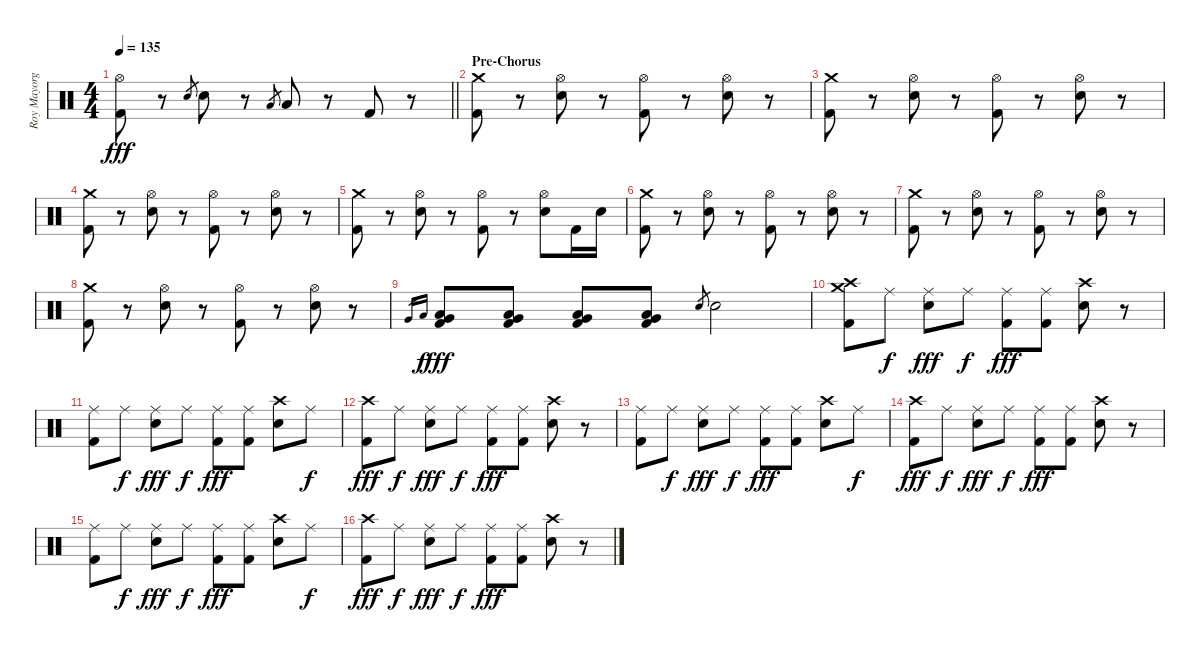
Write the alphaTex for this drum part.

\track ("Roy Mayorga" "Roy Mayorg") {instrument percussion}
\staff {score}
\articulation defaults
\ts (4 4)
\tempo 135
\clef neutral
\barLineRight lightlight
\ks c
("Hi-Hat (open)" "Kick (hit) 2").8{dy fff} r.8 "Electric Snare (hit)".8{gr} "Electric Snare (hit)".8 r.8 "Low Tom (hit)".8{gr} "Low Tom (hit)".8 r.8 "Kick (hit) 2".8 r.8 |
\section ("" "Pre-Chorus")
("Crash medium (hit)" "Kick (hit) 2").8 r.8 ("Hi-Hat (open)" "Electric Snare (hit)").8 r.8 ("Hi-Hat (open)" "Kick (hit) 2").8 r.8 ("Hi-Hat (open)" "Electric Snare (hit)").8 r.8 |
("Crash medium (hit)" "Kick (hit) 2").8 r.8 ("Hi-Hat (open)" "Electric Snare (hit)").8 r.8 ("Hi-Hat (open)" "Kick (hit) 2").8 r.8 ("Hi-Hat (open)" "Electric Snare (hit)").8 r.8 |
("Crash medium (hit)" "Kick (hit) 2").8 r.8 ("Hi-Hat (open)" "Electric Snare (hit)").8 r.8 ("Hi-Hat (open)" "Kick (hit) 2").8 r.8 ("Hi-Hat (open)" "Electric Snare (hit)").8 r.8 |
("Crash medium (hit)" "Kick (hit) 2").8 r.8 ("Hi-Hat (open)" "Electric Snare (hit)").8 r.8 ("Hi-Hat (open)" "Kick (hit) 2").8 r.8 ("Hi-Hat (open)" "Electric Snare (hit)").8 "Kick (hit) 2".16 "Electric Snare (hit)".16 |
("Crash medium (hit)" "Kick (hit) 2").8 r.8 ("Hi-Hat (open)" "Electric Snare (hit)").8 r.8 ("Hi-Hat (open)" "Kick (hit) 2").8 r.8 ("Hi-Hat (open)" "Electric Snare (hit)").8 r.8 |
("Crash medium (hit)" "Kick (hit) 2").8 r.8 ("Hi-Hat (open)" "Electric Snare (hit)").8 r.8 ("Hi-Hat (open)" "Kick (hit) 2").8 r.8 ("Hi-Hat (open)" "Electric Snare (hit)").8 r.8 |
("Crash medium (hit)" "Kick (hit) 2").8 r.8 ("Hi-Hat (open)" "Electric Snare (hit)").8 r.8 ("Hi-Hat (open)" "Kick (hit) 2").8 r.8 ("Hi-Hat (open)" "Electric Snare (hit)").8 r.8 |
"Very Low Tom (hit)".16{gr} "Low Floor Tom (hit)".16{gr dy f} ("Very Low Tom (hit)" "Low Floor Tom (hit)" "Kick (hit) 2").8{dy fff} ("Very Low Tom (hit)" "Low Floor Tom (hit)" "Kick (hit) 2").8 ("Very Low Tom (hit)" "Low Floor Tom (hit)" "Kick (hit) 2").8 ("Very Low Tom (hit)" "Low Floor Tom (hit)" "Kick (hit) 2").8 "Electric Snare (hit)".8{gr} "Electric Snare (hit)".2 |
("Crash high (hit)" "Crash medium (hit)" "Kick (hit) 2").8 "Ride (middle)".8{dy f} ("Ride (middle)" "Electric Snare (hit)").8{dy fff} "Ride (middle)".8{dy f} ("Ride (middle)" "Kick (hit) 2").8{dy fff} ("Ride (middle)" "Kick (hit) 2").8 ("Crash high (hit)" "Electric Snare (hit)").8 r.8 |
("Ride (middle)" "Kick (hit) 2").8 "Ride (middle)".8{dy f} ("Ride (middle)" "Electric Snare (hit)").8{dy fff} "Ride (middle)".8{dy f} ("Ride (middle)" "Kick (hit) 2").8{dy fff} ("Ride (middle)" "Kick (hit) 2").8 ("Crash high (hit)" "Electric Snare (hit)").8 "Ride (middle)".8{dy f} |
("Crash high (hit)" "Kick (hit) 2").8{dy fff} "Ride (middle)".8{dy f} ("Ride (middle)" "Electric Snare (hit)").8{dy fff} "Ride (middle)".8{dy f} ("Ride (middle)" "Kick (hit) 2").8{dy fff} ("Ride (middle)" "Kick (hit) 2").8 ("Crash high (hit)" "Electric Snare (hit)").8 r.8 |
("Ride (middle)" "Kick (hit) 2").8 "Ride (middle)".8{dy f} ("Ride (middle)" "Electric Snare (hit)").8{dy fff} "Ride (middle)".8{dy f} ("Ride (middle)" "Kick (hit) 2").8{dy fff} ("Ride (middle)" "Kick (hit) 2").8 ("Crash high (hit)" "Electric Snare (hit)").8 "Ride (middle)".8{dy f} |
("Crash high (hit)" "Kick (hit) 2").8{dy fff} "Ride (middle)".8{dy f} ("Ride (middle)" "Electric Snare (hit)").8{dy fff} "Ride (middle)".8{dy f} ("Ride (middle)" "Kick (hit) 2").8{dy fff} ("Ride (middle)" "Kick (hit) 2").8 ("Crash high (hit)" "Electric Snare (hit)").8 r.8 |
("Ride (middle)" "Kick (hit) 2").8 "Ride (middle)".8{dy f} ("Ride (middle)" "Electric Snare (hit)").8{dy fff} "Ride (middle)".8{dy f} ("Ride (middle)" "Kick (hit) 2").8{dy fff} ("Ride (middle)" "Kick (hit) 2").8 ("Crash high (hit)" "Electric Snare (hit)").8 "Ride (middle)".8{dy f} |
("Crash high (hit)" "Kick (hit) 2").8{dy fff} "Ride (middle)".8{dy f} ("Ride (middle)" "Electric Snare (hit)").8{dy fff} "Ride (middle)".8{dy f} ("Ride (middle)" "Kick (hit) 2").8{dy fff} ("Ride (middle)" "Kick (hit) 2").8 ("Crash high (hit)" "Electric Snare (hit)").8 r.8
